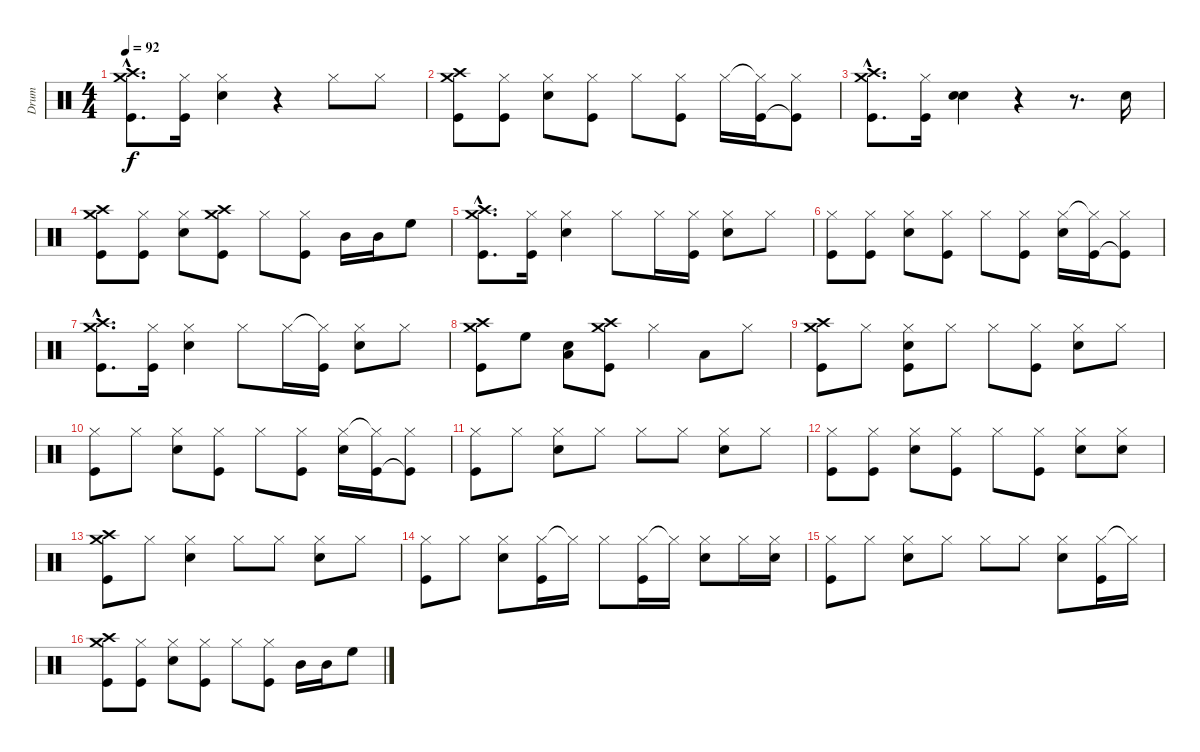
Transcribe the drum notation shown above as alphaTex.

\track ("Drum" "Drum") {instrument percussion}
\staff {score}
\articulation defaults
\ts (4 4)
\tempo 92
\clef neutral
\ks c
("Crash high (hit)"{hac} "Crash medium (hit)"{hac} "Kick (hit)"{hac}).8{d dy f} ("Hi-Hat (closed)" "Kick (hit)").16 ("Hi-Hat (closed)" "Snare (hit) 2").4 r.4 "Hi-Hat (closed)".8 "Hi-Hat (closed)".8 |
("Crash high (hit)" "Crash medium (hit)" "Kick (hit)").8 ("Hi-Hat (closed)" "Kick (hit)").8 ("Hi-Hat (closed)" "Snare (hit) 2").8 ("Hi-Hat (closed)" "Kick (hit)").8 "Hi-Hat (closed)".8 ("Hi-Hat (closed)" "Kick (hit)").8 "Hi-Hat (closed)".16 ("Hi-Hat (closed)"{t} "Kick (hit)").16 ("Hi-Hat (closed)" "Kick (hit)"{t}).8 |
("Crash high (hit)"{hac} "Crash medium (hit)"{hac} "Kick (hit)"{hac}).8{d} ("Hi-Hat (closed)" "Kick (hit)").16 ("Snare (hit) 2" "Snare (hit) 2").4 r.4 r.8{d} "Snare (hit) 2".16 |
("Crash high (hit)" "Crash medium (hit)" "Kick (hit)").8 ("Hi-Hat (closed)" "Kick (hit)").8 ("Hi-Hat (closed)" "Snare (hit) 2").8 ("Crash high (hit)" "Crash medium (hit)" "Kick (hit)").8 "Hi-Hat (closed)".8 ("Hi-Hat (closed)" "Kick (hit)").8 "Mid Tom (hit)".16 "Mid Tom (hit)".16 "High Floor Tom (hit)".8 |
("Crash high (hit)"{hac} "Crash medium (hit)"{hac} "Kick (hit)"{hac}).8{d} ("Hi-Hat (closed)" "Kick (hit)").16 ("Hi-Hat (closed)" "Snare (hit) 2").4 "Hi-Hat (closed)".8 "Hi-Hat (closed)".16 ("Hi-Hat (closed)" "Kick (hit)").16 ("Hi-Hat (closed)" "Snare (hit) 2").8 "Hi-Hat (closed)".8 |
("Hi-Hat (closed)" "Kick (hit)").8 ("Hi-Hat (closed)" "Kick (hit)").8 ("Hi-Hat (closed)" "Snare (hit) 2").8 ("Hi-Hat (closed)" "Kick (hit)").8 "Hi-Hat (closed)".8 ("Hi-Hat (closed)" "Kick (hit)").8 ("Hi-Hat (closed)" "Snare (hit) 2").16 ("Hi-Hat (closed)"{t} "Kick (hit)").16 ("Hi-Hat (closed)" "Kick (hit)"{t}).8 |
("Crash high (hit)"{hac} "Crash medium (hit)"{hac} "Kick (hit)"{hac}).8{d} ("Hi-Hat (closed)" "Kick (hit)").16 ("Hi-Hat (closed)" "Snare (hit) 2").4 "Hi-Hat (closed)".8 "Hi-Hat (closed)".16 ("Hi-Hat (closed)"{t} "Kick (hit)").16 ("Hi-Hat (closed)" "Snare (hit) 2").8 "Hi-Hat (closed)".8 |
("Crash high (hit)" "Crash medium (hit)" "Kick (hit)").8 "High Floor Tom (hit)".8 ("Low Tom (hit)" "Snare (hit) 2").8 ("Crash high (hit)" "Crash medium (hit)" "Kick (hit)").8 "Hi-Hat (closed)".4 "Low Tom (hit)".8 "Hi-Hat (closed)".8 |
("Crash high (hit)" "Crash medium (hit)" "Kick (hit)").8 "Hi-Hat (closed)".8 ("Hi-Hat (closed)" "Snare (hit) 2" "Kick (hit)").8 "Hi-Hat (closed)".8 "Hi-Hat (closed)".8 ("Hi-Hat (closed)" "Kick (hit)").8 ("Hi-Hat (closed)" "Snare (hit) 2").8 "Hi-Hat (closed)".8 |
("Hi-Hat (closed)" "Kick (hit)").8 "Hi-Hat (closed)".8 ("Hi-Hat (closed)" "Snare (hit) 2").8 ("Hi-Hat (closed)" "Kick (hit)").8 "Hi-Hat (closed)".8 ("Hi-Hat (closed)" "Kick (hit)").8 ("Hi-Hat (closed)" "Snare (hit) 2").16 ("Hi-Hat (closed)"{t} "Kick (hit)").16 ("Hi-Hat (closed)" "Kick (hit)"{t}).8 |
("Hi-Hat (closed)" "Kick (hit)").8 "Hi-Hat (closed)".8 ("Hi-Hat (closed)" "Snare (hit) 2").8 "Hi-Hat (closed)".8 "Hi-Hat (closed)".8 "Hi-Hat (closed)".8 ("Hi-Hat (closed)" "Snare (hit) 2").8 "Hi-Hat (closed)".8 |
("Hi-Hat (closed)" "Kick (hit)").8 ("Hi-Hat (closed)" "Kick (hit)").8 ("Hi-Hat (closed)" "Snare (hit) 2").8 ("Hi-Hat (closed)" "Kick (hit)").8 "Hi-Hat (closed)".8 ("Hi-Hat (closed)" "Kick (hit)").8 ("Hi-Hat (closed)" "Snare (hit) 2").8 ("Hi-Hat (closed)" "Snare (hit) 2").8 |
("Crash high (hit)" "Crash medium (hit)" "Kick (hit)").8 "Hi-Hat (closed)".8 ("Hi-Hat (closed)" "Snare (hit) 2").4 "Hi-Hat (closed)".8 "Hi-Hat (closed)".8 ("Hi-Hat (closed)" "Snare (hit) 2").8 "Hi-Hat (closed)".8 |
("Hi-Hat (closed)" "Kick (hit)").8 "Hi-Hat (closed)".8 ("Hi-Hat (closed)" "Snare (hit) 2").8 ("Hi-Hat (closed)" "Kick (hit)").16 "Hi-Hat (closed)"{t}.16 "Hi-Hat (closed)".8 ("Hi-Hat (closed)" "Kick (hit)").16 "Hi-Hat (closed)"{t}.16 ("Hi-Hat (closed)" "Snare (hit) 2").8 "Hi-Hat (closed)".16 ("Hi-Hat (closed)" "Snare (hit) 2").16 |
("Hi-Hat (closed)" "Kick (hit)").8 "Hi-Hat (closed)".8 ("Hi-Hat (closed)" "Snare (hit) 2").8 "Hi-Hat (closed)".8 "Hi-Hat (closed)".8 "Hi-Hat (closed)".8 ("Hi-Hat (closed)" "Snare (hit) 2").8 ("Hi-Hat (closed)" "Kick (hit)").16 "Hi-Hat (closed)"{t}.16 |
("Crash high (hit)" "Crash medium (hit)" "Kick (hit)").8 ("Hi-Hat (closed)" "Kick (hit)").8 ("Hi-Hat (closed)" "Snare (hit) 2").8 ("Hi-Hat (closed)" "Kick (hit)").8 "Hi-Hat (closed)".8 ("Hi-Hat (closed)" "Kick (hit)").8 "Mid Tom (hit)".16 "Mid Tom (hit)".16 "High Floor Tom (hit)".8
